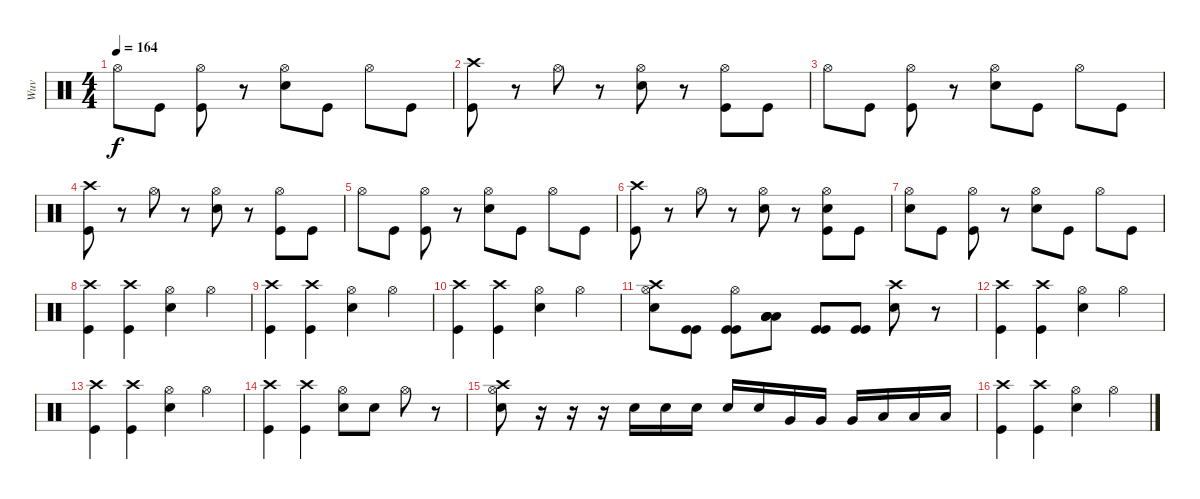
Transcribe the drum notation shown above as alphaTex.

\track ("Wuv" "Wuv") {instrument percussion}
\staff {score}
\articulation defaults
\ts (4 4)
\tempo 164
\clef neutral
\ks c "Hi-Hat (open)".8{dy f} "Kick (hit)".8
("Hi-Hat (open)" "Kick (hit)").8 r.8 ("Hi-Hat (open)" "Snare (hit) 2").8 "Kick (hit)".8 "Hi-Hat (open)".8 "Kick (hit)".8 |
("Crash high (hit)" "Kick (hit)").8 r.8 "Hi-Hat (open)".8 r.8 ("Hi-Hat (open)" "Snare (hit) 2").8 r.8 ("Hi-Hat (open)" "Kick (hit)").8 "Kick (hit)".8 |
"Hi-Hat (open)".8 "Kick (hit)".8 ("Hi-Hat (open)" "Kick (hit)").8 r.8 ("Hi-Hat (open)" "Snare (hit) 2").8 "Kick (hit)".8 "Hi-Hat (open)".8 "Kick (hit)".8 |
("Crash high (hit)" "Kick (hit)").8 r.8 "Hi-Hat (open)".8 r.8 ("Hi-Hat (open)" "Snare (hit) 2").8 r.8 ("Hi-Hat (open)" "Kick (hit)").8 "Kick (hit)".8 |
"Hi-Hat (open)".8 "Kick (hit)".8 ("Hi-Hat (open)" "Kick (hit)").8 r.8 ("Hi-Hat (open)" "Snare (hit) 2").8 "Kick (hit)".8 "Hi-Hat (open)".8 "Kick (hit)".8 |
("Crash high (hit)" "Kick (hit)").8 r.8 "Hi-Hat (open)".8 r.8 ("Hi-Hat (open)" "Snare (hit) 2").8 r.8 ("Hi-Hat (open)" "Snare (hit) 2" "Kick (hit)").8 "Kick (hit)".8 |
("Hi-Hat (open)" "Snare (hit) 2").8 "Kick (hit)".8 ("Hi-Hat (open)" "Kick (hit)").8 r.8 ("Hi-Hat (open)" "Snare (hit) 2").8 "Kick (hit)".8 "Hi-Hat (open)".8 "Kick (hit)".8 |
("Crash high (hit)" "Kick (hit)").4 ("Crash high (hit)" "Kick (hit)").4 ("Hi-Hat (open)" "Snare (hit) 2").4 "Hi-Hat (open)".4 |
("Crash high (hit)" "Kick (hit)").4 ("Crash high (hit)" "Kick (hit)").4 ("Hi-Hat (open)" "Snare (hit) 2").4 "Hi-Hat (open)".4 |
("Crash high (hit)" "Kick (hit)").4 ("Crash high (hit)" "Kick (hit)").4 ("Hi-Hat (open)" "Snare (hit) 2").4 "Hi-Hat (open)".4 |
("Hi-Hat (open)" "Crash high (hit)" "Snare (hit) 2").8 ("Kick (hit)" "Kick (hit)").8 ("Hi-Hat (open)" "Kick (hit)" "Kick (hit)").8 ("Low Floor Tom (hit)" "Low Floor Tom (hit)" "Low Floor Tom (hit)" "Low Floor Tom (hit)").8 ("Kick (hit)" "Kick (hit)").8 ("Kick (hit)" "Kick (hit)").8 ("Crash high (hit)" "Snare (hit) 2").8 r.8 |
("Crash high (hit)" "Kick (hit)").4 ("Crash high (hit)" "Kick (hit)").4 ("Hi-Hat (open)" "Snare (hit) 2").4 "Hi-Hat (open)".4 |
("Crash high (hit)" "Kick (hit)").4 ("Crash high (hit)" "Kick (hit)").4 ("Hi-Hat (open)" "Snare (hit) 2").4 "Hi-Hat (open)".4 |
("Crash high (hit)" "Kick (hit)").4 ("Crash high (hit)" "Kick (hit)").4 ("Hi-Hat (open)" "Snare (hit) 2").8 "Snare (hit) 2".8 "Hi-Hat (open)".8 r.8 |
("Hi-Hat (open)" "Crash high (hit)" "Snare (hit) 2").8 r.16 r.16 r.16 "Snare (hit) 2".16 "Snare (hit) 2".16 "Snare (hit) 2".16 "Snare (hit) 2".16 "Snare (hit) 2".16 "Very Low Tom (hit)".16 "Very Low Tom (hit)".16 "Very Low Tom (hit)".16 "Low Floor Tom (hit)".16 "Low Floor Tom (hit)".16 "Low Floor Tom (hit)".16 |
("Crash high (hit)" "Kick (hit)").4 ("Crash high (hit)" "Kick (hit)").4 ("Hi-Hat (open)" "Snare (hit) 2").4 "Hi-Hat (open)".4
